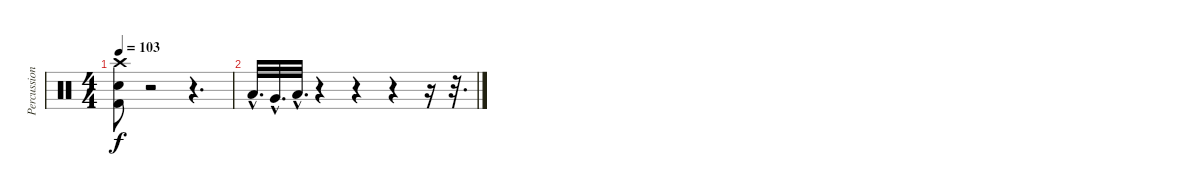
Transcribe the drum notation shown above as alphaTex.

\track ("Percussions" "Percussion") {instrument percussion}
\staff {score}
\articulation defaults
\ts (4 4)
\tempo 103
\clef neutral
\ks c
("Crash high (hit)" "Snare (hit) 2" "Kick (hit) 2").8{dy f} r.2 r.4{d} |
"Low Tom (hit)"{hac}.32{d} "Very Low Tom (hit)"{hac}.32{d} "Low Floor Tom (hit)"{hac}.32{d} r.4 r.4 r.4 r.16 r.32{d}
